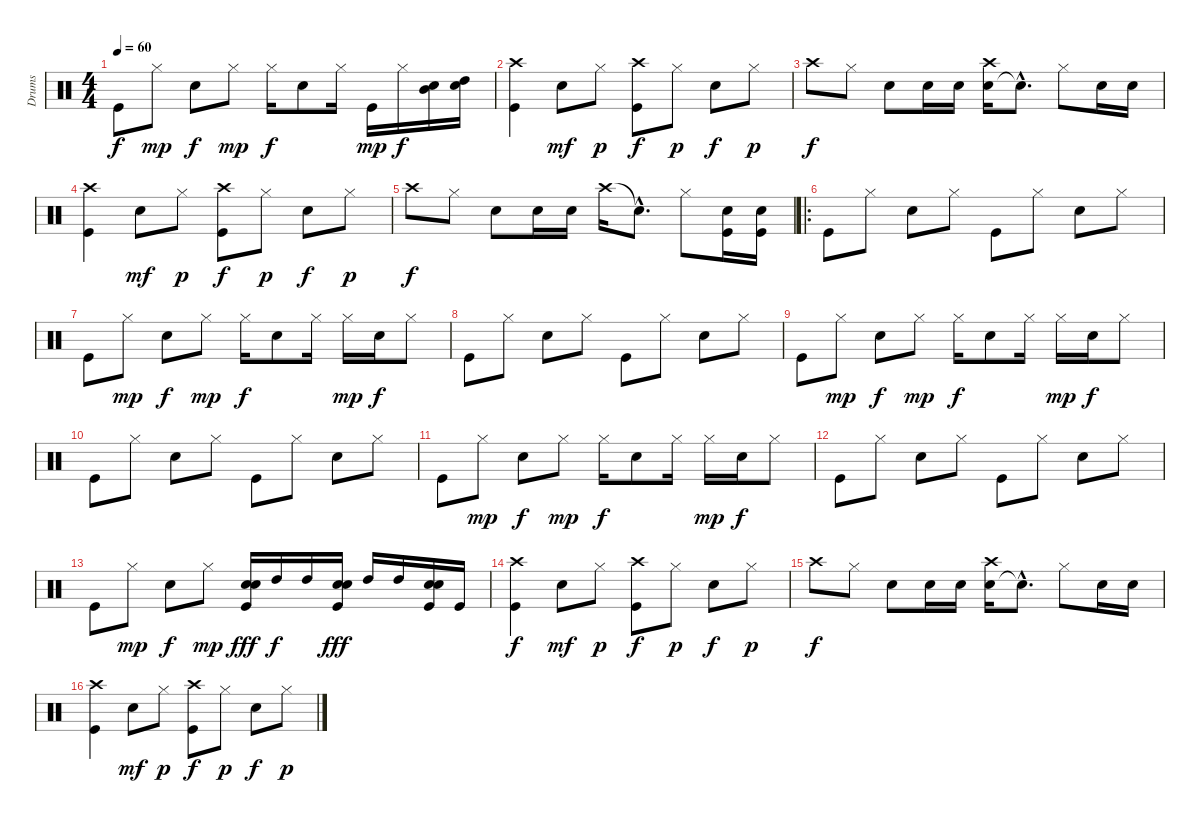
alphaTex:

\track ("Drums" "Drums") {instrument percussion}
\staff {score}
\articulation defaults
\ts (4 4)
\tempo 60
\clef neutral
\ks c "Kick (hit)".8{dy f} "Hi-Hat (closed)".8{dy mp} "Snare (hit) 2".8{dy f} "Hi-Hat (closed)".8{dy mp} "Hi-Hat (closed)".16{dy f} "Snare (hit) 2".8 "Hi-Hat (closed)".16 "Kick (hit)".16{dy mp} "Hi-Hat (closed)".16{dy f}
("Mid Tom (hit)" "Snare (hit) 2").16 ("High Tom (hit)" "Snare (hit) 2").16 |
("Crash high (hit)" "Kick (hit)").4 "Snare (hit) 2".8{dy mf} "Hi-Hat (closed)".8{dy p} ("Crash high (hit)" "Kick (hit)").8{dy f} "Hi-Hat (closed)".8{dy p} "Snare (hit) 2".8{dy f} "Hi-Hat (closed)".8{dy p} |
"Crash high (hit)".8{dy f} "Hi-Hat (closed)".8 "Snare (hit) 2".8 "Snare (hit) 2".16 "Snare (hit) 2".16 ("Snare (hit) 2" "Crash high (hit)").16 "Snare (hit) 2"{hac t}.8{d} "Hi-Hat (closed)".8 "Snare (hit) 2".16 "Snare (hit) 2".16 |
("Crash high (hit)" "Kick (hit)").4 "Snare (hit) 2".8{dy mf} "Hi-Hat (closed)".8{dy p} ("Crash high (hit)" "Kick (hit)").8{dy f} "Hi-Hat (closed)".8{dy p} "Snare (hit) 2".8{dy f} "Hi-Hat (closed)".8{dy p} |
"Crash high (hit)".8{dy f} "Hi-Hat (closed)".8 "Snare (hit) 2".8 "Snare (hit) 2".16 "Snare (hit) 2".16 "Crash high (hit)".16 "Snare (hit) 2"{hac t}.8{d} "Hi-Hat (closed)".8 ("Kick (hit)" "Snare (hit) 2").16 ("Kick (hit)" "Snare (hit) 2").16 |
\ro "Kick (hit)".8 "Hi-Hat (closed)".8 "Snare (hit) 2".8 "Hi-Hat (closed)".8 "Kick (hit)".8 "Hi-Hat (closed)".8 "Snare (hit) 2".8 "Hi-Hat (closed)".8
|
"Kick (hit)".8 "Hi-Hat (closed)".8{dy mp} "Snare (hit) 2".8{dy f} "Hi-Hat (closed)".8{dy mp} "Hi-Hat (closed)".16{dy f} "Snare (hit) 2".8 "Hi-Hat (closed)".16 "Hi-Hat (closed)".16{dy mp} "Snare (hit) 2".16{dy f} "Hi-Hat (closed)".8 |
"Kick (hit)".8 "Hi-Hat (closed)".8 "Snare (hit) 2".8 "Hi-Hat (closed)".8 "Kick (hit)".8 "Hi-Hat (closed)".8 "Snare (hit) 2".8 "Hi-Hat (closed)".8 |
"Kick (hit)".8 "Hi-Hat (closed)".8{dy mp} "Snare (hit) 2".8{dy f} "Hi-Hat (closed)".8{dy mp} "Hi-Hat (closed)".16{dy f} "Snare (hit) 2".8 "Hi-Hat (closed)".16 "Hi-Hat (closed)".16{dy mp} "Snare (hit) 2".16{dy f} "Hi-Hat (closed)".8 |
"Kick (hit)".8 "Hi-Hat (closed)".8 "Snare (hit) 2".8 "Hi-Hat (closed)".8 "Kick (hit)".8 "Hi-Hat (closed)".8 "Snare (hit) 2".8 "Hi-Hat (closed)".8 |
"Kick (hit)".8 "Hi-Hat (closed)".8{dy mp} "Snare (hit) 2".8{dy f} "Hi-Hat (closed)".8{dy mp} "Hi-Hat (closed)".16{dy f} "Snare (hit) 2".8 "Hi-Hat (closed)".16 "Hi-Hat (closed)".16{dy mp} "Snare (hit) 2".16{dy f} "Hi-Hat (closed)".8 |
"Kick (hit)".8 "Hi-Hat (closed)".8 "Snare (hit) 2".8 "Hi-Hat (closed)".8 "Kick (hit)".8 "Hi-Hat (closed)".8 "Snare (hit) 2".8 "Hi-Hat (closed)".8 |
"Kick (hit)".8 "Hi-Hat (closed)".8{dy mp} "Snare (hit) 2".8{dy f} "Hi-Hat (closed)".8{dy mp} ("Electric Snare (hit)" "Snare (hit) 2" "Kick (hit)").16{dy fff} "High Tom (hit)".16{dy f} "High Tom (hit)".16 ("Electric Snare (hit)" "Snare (hit) 2" "Kick (hit)").16{dy fff} "High Tom (hit)".16 "High Tom (hit)".16 ("Electric Snare (hit)" "Snare (hit) 2" "Kick (hit)").16 "Kick (hit)".16 |
("Crash high (hit)" "Kick (hit)").4{dy f} "Snare (hit) 2".8{dy mf} "Hi-Hat (closed)".8{dy p} ("Crash high (hit)" "Kick (hit)").8{dy f} "Hi-Hat (closed)".8{dy p} "Snare (hit) 2".8{dy f} "Hi-Hat (closed)".8{dy p} |
"Crash high (hit)".8{dy f} "Hi-Hat (closed)".8 "Snare (hit) 2".8 "Snare (hit) 2".16 "Snare (hit) 2".16 ("Snare (hit) 2" "Crash high (hit)").16 "Snare (hit) 2"{hac t}.8{d} "Hi-Hat (closed)".8 "Snare (hit) 2".16 "Snare (hit) 2".16 |
("Crash high (hit)" "Kick (hit)").4 "Snare (hit) 2".8{dy mf} "Hi-Hat (closed)".8{dy p} ("Crash high (hit)" "Kick (hit)").8{dy f} "Hi-Hat (closed)".8{dy p} "Snare (hit) 2".8{dy f} "Hi-Hat (closed)".8{dy p}
